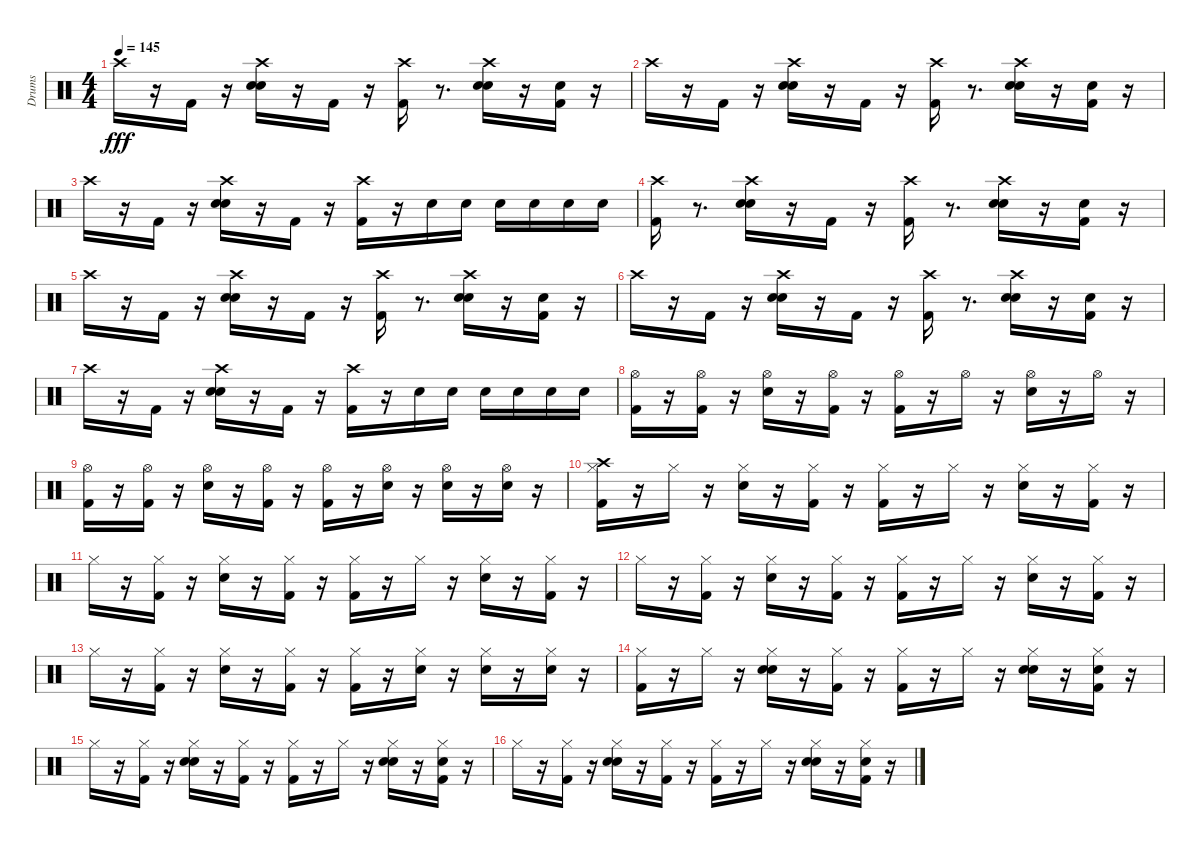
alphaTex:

\track ("Drums" "Drums") {instrument percussion}
\staff {score}
\articulation defaults
\ts (4 4)
\tempo 145
\clef neutral
\ks c "Crash high (hit)".16{dy fff}
r.16 "Kick (hit) 2".16 r.16 ("Crash high (hit)" "Hand Clap (hit)" "Electric Snare (hit)").16 r.16 "Kick (hit) 2".16 r.16 ("Crash high (hit)" "Kick (hit) 2").16 r.8{d} ("Crash high (hit)" "Hand Clap (hit)" "Electric Snare (hit)").16 r.16 ("Hand Clap (hit)" "Kick (hit) 2").16 r.16 |
"Crash high (hit)".16 r.16 "Kick (hit) 2".16 r.16 ("Crash high (hit)" "Hand Clap (hit)" "Electric Snare (hit)").16 r.16 "Kick (hit) 2".16 r.16 ("Crash high (hit)" "Kick (hit) 2").16 r.8{d} ("Crash high (hit)" "Hand Clap (hit)" "Electric Snare (hit)").16 r.16 ("Hand Clap (hit)" "Kick (hit) 2").16 r.16 |
"Crash high (hit)".16 r.16 "Kick (hit) 2".16 r.16 ("Crash high (hit)" "Electric Snare (hit)" "Hand Clap (hit)").16 r.16 "Kick (hit) 2".16 r.16 ("Crash high (hit)" "Kick (hit) 2").16 r.16 "Electric Snare (hit)".16 "Electric Snare (hit)".16 "Electric Snare (hit)".16 "Electric Snare (hit)".16 "Electric Snare (hit)".16 "Electric Snare (hit)".16 |
("Kick (hit) 2" "Crash high (hit)").16 r.8{d} ("Crash high (hit)" "Hand Clap (hit)" "Electric Snare (hit)").16 r.16 "Kick (hit) 2".16 r.16 ("Crash high (hit)" "Kick (hit) 2").16 r.8{d} ("Crash high (hit)" "Hand Clap (hit)" "Electric Snare (hit)").16 r.16 ("Hand Clap (hit)" "Kick (hit) 2").16 r.16 |
"Crash high (hit)".16 r.16 "Kick (hit) 2".16 r.16 ("Crash high (hit)" "Hand Clap (hit)" "Electric Snare (hit)").16 r.16 "Kick (hit) 2".16 r.16 ("Crash high (hit)" "Kick (hit) 2").16 r.8{d} ("Crash high (hit)" "Hand Clap (hit)" "Electric Snare (hit)").16 r.16 ("Hand Clap (hit)" "Kick (hit) 2").16 r.16 |
"Crash high (hit)".16 r.16 "Kick (hit) 2".16 r.16 ("Crash high (hit)" "Hand Clap (hit)" "Electric Snare (hit)").16 r.16 "Kick (hit) 2".16 r.16 ("Crash high (hit)" "Kick (hit) 2").16 r.8{d} ("Crash high (hit)" "Hand Clap (hit)" "Electric Snare (hit)").16 r.16 ("Hand Clap (hit)" "Kick (hit) 2").16 r.16 |
"Crash high (hit)".16 r.16 "Kick (hit) 2".16 r.16 ("Crash high (hit)" "Electric Snare (hit)" "Hand Clap (hit)").16 r.16 "Kick (hit) 2".16 r.16 ("Crash high (hit)" "Kick (hit) 2").16 r.16 "Electric Snare (hit)".16 "Electric Snare (hit)".16 "Electric Snare (hit)".16 "Electric Snare (hit)".16 "Electric Snare (hit)".16 "Electric Snare (hit)".16 |
("Hi-Hat (open)" "Kick (hit) 2").16 r.16 ("Kick (hit) 2" "Hi-Hat (open)").16 r.16 ("Hi-Hat (open)" "Electric Snare (hit)").16 r.16 ("Kick (hit) 2" "Hi-Hat (open)").16 r.16 ("Hi-Hat (open)" "Kick (hit) 2").16 r.16 "Hi-Hat (open)".16 r.16 ("Hi-Hat (open)" "Electric Snare (hit)").16 r.16 "Hi-Hat (open)".16 r.16 |
("Hi-Hat (open)" "Kick (hit) 2").16 r.16 ("Kick (hit) 2" "Hi-Hat (open)").16 r.16 ("Hi-Hat (open)" "Electric Snare (hit)").16 r.16 ("Kick (hit) 2" "Hi-Hat (open)").16 r.16 ("Hi-Hat (open)" "Kick (hit) 2").16 r.16 ("Electric Snare (hit)" "Hi-Hat (open)").16 r.16 ("Hi-Hat (open)" "Electric Snare (hit)").16 r.16 ("Electric Snare (hit)" "Hi-Hat (open)").16 r.16 |
("Crash high (hit)" "Hi-Hat (closed)" "Kick (hit) 2").16 r.16 "Hi-Hat (closed)".16 r.16 ("Hi-Hat (closed)" "Electric Snare (hit)").16 r.16 ("Hi-Hat (closed)" "Kick (hit) 2").16 r.16 ("Hi-Hat (closed)" "Kick (hit) 2").16 r.16 "Hi-Hat (closed)".16 r.16 ("Hi-Hat (closed)" "Electric Snare (hit)").16 r.16 ("Hi-Hat (closed)" "Kick (hit) 2").16 r.16 |
"Hi-Hat (closed)".16 r.16 ("Kick (hit) 2" "Hi-Hat (closed)").16 r.16 ("Electric Snare (hit)" "Hi-Hat (closed)").16 r.16 ("Kick (hit) 2" "Hi-Hat (closed)").16 r.16 ("Kick (hit) 2" "Hi-Hat (closed)").16 r.16 "Hi-Hat (closed)".16 r.16 ("Electric Snare (hit)" "Hi-Hat (closed)").16 r.16 ("Kick (hit) 2" "Hi-Hat (closed)").16 r.16 |
"Hi-Hat (closed)".16 r.16 ("Kick (hit) 2" "Hi-Hat (closed)").16 r.16 ("Electric Snare (hit)" "Hi-Hat (closed)").16 r.16 ("Kick (hit) 2" "Hi-Hat (closed)").16 r.16 ("Kick (hit) 2" "Hi-Hat (closed)").16 r.16 "Hi-Hat (closed)".16 r.16 ("Electric Snare (hit)" "Hi-Hat (closed)").16 r.16 ("Kick (hit) 2" "Hi-Hat (closed)").16 r.16 |
"Hi-Hat (closed)".16 r.16 ("Kick (hit) 2" "Hi-Hat (closed)").16 r.16 ("Electric Snare (hit)" "Hi-Hat (closed)").16 r.16 ("Kick (hit) 2" "Hi-Hat (closed)").16 r.16 ("Kick (hit) 2" "Hi-Hat (closed)").16 r.16 ("Electric Snare (hit)" "Hi-Hat (closed)").16 r.16 ("Electric Snare (hit)" "Hi-Hat (closed)").16 r.16 ("Electric Snare (hit)" "Hi-Hat (closed)").16 r.16 |
("Hi-Hat (closed)" "Kick (hit) 2").16 r.16 "Hi-Hat (closed)".16 r.16 ("Hand Clap (hit)" "Hi-Hat (closed)" "Electric Snare (hit)").16 r.16 ("Hi-Hat (closed)" "Kick (hit) 2").16 r.16 ("Hi-Hat (closed)" "Kick (hit) 2").16 r.16 "Hi-Hat (closed)".16 r.16 ("Hand Clap (hit)" "Hi-Hat (closed)" "Electric Snare (hit)").16 r.16 ("Hand Clap (hit)" "Hi-Hat (closed)" "Kick (hit) 2").16 r.16 |
"Hi-Hat (closed)".16 r.16 ("Kick (hit) 2" "Hi-Hat (closed)").16 r.16 ("Electric Snare (hit)" "Hand Clap (hit)" "Hi-Hat (closed)").16 r.16 ("Kick (hit) 2" "Hi-Hat (closed)").16 r.16 ("Kick (hit) 2" "Hi-Hat (closed)").16 r.16 "Hi-Hat (closed)".16 r.16 ("Electric Snare (hit)" "Hi-Hat (closed)" "Hand Clap (hit)").16 r.16 ("Kick (hit) 2" "Hi-Hat (closed)" "Hand Clap (hit)").16 r.16 |
"Hi-Hat (closed)".16 r.16 ("Kick (hit) 2" "Hi-Hat (closed)").16 r.16 ("Electric Snare (hit)" "Hand Clap (hit)" "Hi-Hat (closed)").16 r.16 ("Kick (hit) 2" "Hi-Hat (closed)").16 r.16 ("Kick (hit) 2" "Hi-Hat (closed)").16 r.16 "Hi-Hat (closed)".16 r.16 ("Electric Snare (hit)" "Hand Clap (hit)" "Hi-Hat (closed)").16 r.16 ("Kick (hit) 2" "Hi-Hat (closed)" "Hand Clap (hit)").16 r.16
